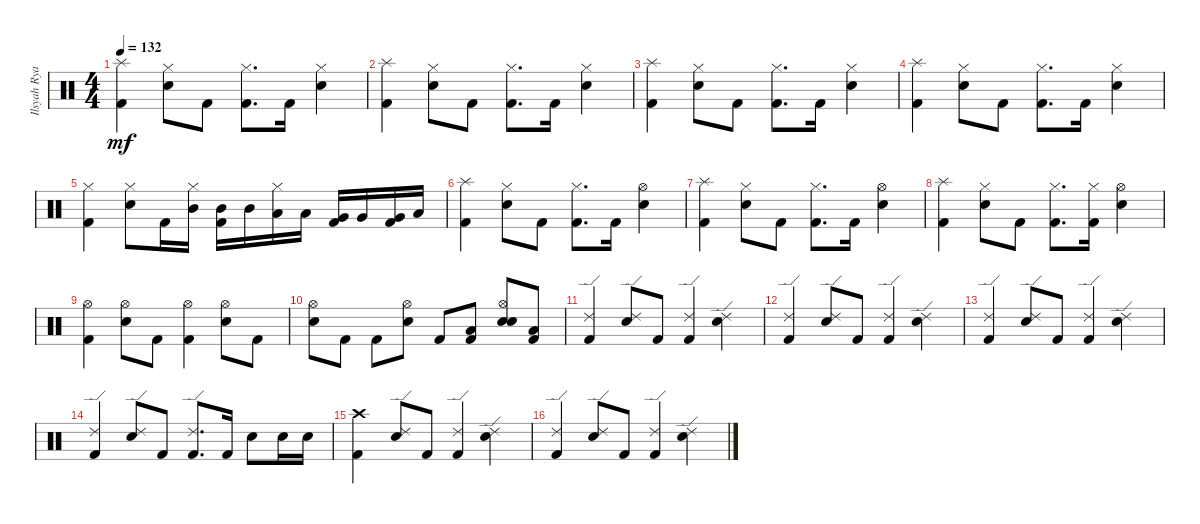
\track ("Ilsyah Ryan Reza (drum)" "Ilsyah Rya") {instrument percussion}
\staff {score}
\articulation defaults
\ts (4 4)
\tempo 132
\clef neutral
\ks c
("Splash (hit)" "Kick (hit) 2").4{dy mf} ("Hi-Hat (closed)" "Electric Snare (hit)").8 "Kick (hit) 2".8 ("Hi-Hat (closed)" "Kick (hit) 2").8{d} "Kick (hit) 2".16 ("Hi-Hat (closed)" "Electric Snare (hit)").4 |
("Splash (hit)" "Kick (hit) 2").4 ("Hi-Hat (closed)" "Electric Snare (hit)").8 "Kick (hit) 2".8 ("Hi-Hat (closed)" "Kick (hit) 2").8{d} "Kick (hit) 2".16 ("Hi-Hat (closed)" "Electric Snare (hit)").4 |
("Splash (hit)" "Kick (hit) 2").4 ("Hi-Hat (closed)" "Electric Snare (hit)").8 "Kick (hit) 2".8 ("Hi-Hat (closed)" "Kick (hit) 2").8{d} "Kick (hit) 2".16 ("Hi-Hat (closed)" "Electric Snare (hit)").4 |
("Splash (hit)" "Kick (hit) 2").4 ("Hi-Hat (closed)" "Electric Snare (hit)").8 "Kick (hit) 2".8 ("Hi-Hat (closed)" "Kick (hit) 2").8{d} "Kick (hit) 2".16 ("Hi-Hat (closed)" "Electric Snare (hit)").4 |
("Hi-Hat (closed)" "Kick (hit) 2").4 ("Hi-Hat (closed)" "Electric Snare (hit)").8 "Kick (hit) 2".16 ("Hi-Hat (closed)" "Mid Tom (hit)").16 ("Mid Tom (hit)" "Kick (hit) 2").16 "Mid Tom (hit)".16 ("Hi-Hat (closed)" "Low Tom (hit)").16 "Low Tom (hit)".16 ("Very Low Tom (hit)" "Kick (hit) 2").16 "Very Low Tom (hit)".16 ("Very Low Tom (hit)" "Kick (hit) 2").16 "Low Floor Tom (hit)".16 |
("Splash (hit)" "Kick (hit) 2").4 ("Hi-Hat (closed)" "Electric Snare (hit)").8 "Kick (hit) 2".8 ("Hi-Hat (closed)" "Kick (hit) 2").8{d} "Kick (hit) 2".16 ("Hi-Hat (open)" "Electric Snare (hit)").4 |
("Splash (hit)" "Kick (hit) 2").4 ("Hi-Hat (closed)" "Electric Snare (hit)").8 "Kick (hit) 2".8 ("Hi-Hat (closed)" "Kick (hit) 2").8{d} "Kick (hit) 2".16 ("Hi-Hat (open)" "Electric Snare (hit)").4 |
("Splash (hit)" "Kick (hit) 2").4 ("Hi-Hat (closed)" "Electric Snare (hit)").8 "Kick (hit) 2".8 ("Hi-Hat (closed)" "Kick (hit) 2").8{d} ("Hi-Hat (closed)" "Kick (hit) 2").16 ("Hi-Hat (open)" "Electric Snare (hit)").4 |
("Hi-Hat (open)" "Kick (hit) 2").4 ("Hi-Hat (open)" "Electric Snare (hit)").8 "Kick (hit) 2".8 ("Hi-Hat (open)" "Kick (hit) 2").4 ("Hi-Hat (open)" "Electric Snare (hit)").8 "Kick (hit) 2".8 |
("Hi-Hat (open)" "Electric Snare (hit)").8 "Kick (hit) 2".8 "Kick (hit) 2".8 ("Hi-Hat (open)" "Electric Snare (hit)").8 "Kick (hit) 2".8 ("Low Tom (hit)" "Kick (hit) 2").8 ("Hi-Hat (open)" "Snare (hit) 2" "Electric Snare (hit)").8 ("Low Tom (hit)" "Kick (hit) 2").8 |
("Ride (edge) 2" "Kick (hit) 2").4 ("Ride (edge) 2" "Electric Snare (hit)").8 "Kick (hit) 2".8 ("Ride (edge) 2" "Kick (hit) 2").4 ("Ride (edge) 2" "Electric Snare (hit)").4 |
("Ride (edge) 2" "Kick (hit) 2").4 ("Ride (edge) 2" "Electric Snare (hit)").8 "Kick (hit) 2".8 ("Ride (edge) 2" "Kick (hit) 2").4 ("Ride (edge) 2" "Electric Snare (hit)").4 |
("Ride (edge) 2" "Kick (hit) 2").4 ("Ride (edge) 2" "Electric Snare (hit)").8 "Kick (hit) 2".8 ("Ride (edge) 2" "Kick (hit) 2").4 ("Ride (edge) 2" "Electric Snare (hit)").4 |
("Ride (edge) 2" "Kick (hit) 2").4 ("Ride (edge) 2" "Electric Snare (hit)").8 "Kick (hit) 2".8 ("Ride (edge) 2" "Kick (hit) 2").8{d} "Kick (hit) 2".16 "Electric Snare (hit)".8 "Electric Snare (hit)".16 "Electric Snare (hit)".16 |
("Crash high (hit)" "Kick (hit) 2").4 ("Ride (edge) 2" "Electric Snare (hit)").8 "Kick (hit) 2".8 ("Ride (edge) 2" "Kick (hit) 2").4 ("Ride (edge) 2" "Electric Snare (hit)").4 |
("Ride (edge) 2" "Kick (hit) 2").4 ("Ride (edge) 2" "Electric Snare (hit)").8 "Kick (hit) 2".8 ("Ride (edge) 2" "Kick (hit) 2").4 ("Ride (edge) 2" "Electric Snare (hit)").4
